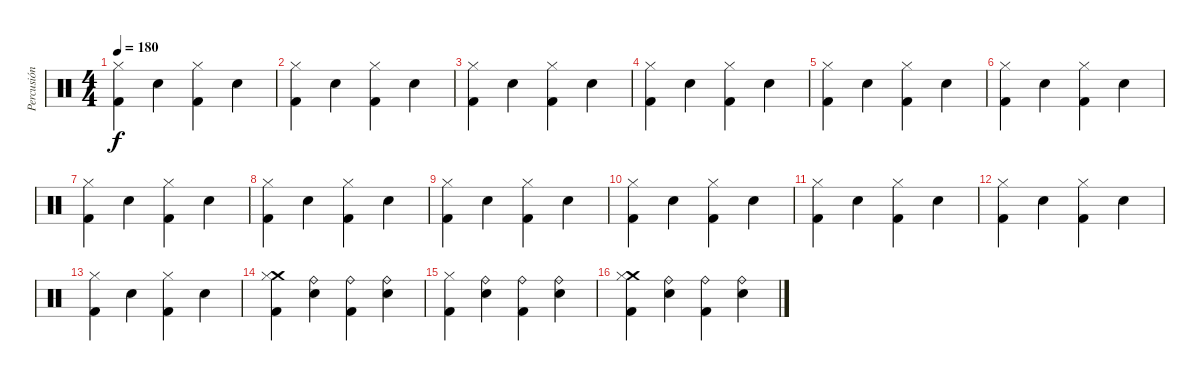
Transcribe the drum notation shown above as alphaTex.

\track ("Percusión" "Percusión") {instrument percussion}
\staff {score}
\articulation defaults
\ts (4 4)
\tempo 180
\clef neutral
\ks c
("Hi-Hat (closed)" "Kick (hit) 2").4{dy f} "Electric Snare (hit)".4 ("Hi-Hat (closed)" "Kick (hit) 2").4 "Electric Snare (hit)".4 |
("Hi-Hat (closed)" "Kick (hit) 2").4 "Electric Snare (hit)".4 ("Hi-Hat (closed)" "Kick (hit) 2").4 "Electric Snare (hit)".4 |
("Hi-Hat (closed)" "Kick (hit) 2").4 "Electric Snare (hit)".4 ("Hi-Hat (closed)" "Kick (hit) 2").4 "Electric Snare (hit)".4 |
("Hi-Hat (closed)" "Kick (hit) 2").4 "Electric Snare (hit)".4 ("Hi-Hat (closed)" "Kick (hit) 2").4 "Electric Snare (hit)".4 |
("Hi-Hat (closed)" "Kick (hit) 2").4 "Electric Snare (hit)".4 ("Hi-Hat (closed)" "Kick (hit) 2").4 "Electric Snare (hit)".4 |
("Hi-Hat (closed)" "Kick (hit) 2").4 "Electric Snare (hit)".4 ("Hi-Hat (closed)" "Kick (hit) 2").4 "Electric Snare (hit)".4 |
("Hi-Hat (closed)" "Kick (hit) 2").4 "Electric Snare (hit)".4 ("Hi-Hat (closed)" "Kick (hit) 2").4 "Electric Snare (hit)".4 |
("Hi-Hat (closed)" "Kick (hit) 2").4 "Electric Snare (hit)".4 ("Hi-Hat (closed)" "Kick (hit) 2").4 "Electric Snare (hit)".4 |
("Hi-Hat (closed)" "Kick (hit) 2").4 "Electric Snare (hit)".4 ("Hi-Hat (closed)" "Kick (hit) 2").4 "Electric Snare (hit)".4 |
("Hi-Hat (closed)" "Kick (hit) 2").4 "Electric Snare (hit)".4 ("Hi-Hat (closed)" "Kick (hit) 2").4 "Electric Snare (hit)".4 |
("Hi-Hat (closed)" "Kick (hit) 2").4 "Electric Snare (hit)".4 ("Hi-Hat (closed)" "Kick (hit) 2").4 "Electric Snare (hit)".4 |
("Hi-Hat (closed)" "Kick (hit) 2").4 "Electric Snare (hit)".4 ("Hi-Hat (closed)" "Kick (hit) 2").4 "Electric Snare (hit)".4 |
("Hi-Hat (closed)" "Kick (hit) 2").4 "Electric Snare (hit)".4 ("Hi-Hat (closed)" "Kick (hit) 2").4 "Electric Snare (hit)".4 |
("Crash medium (hit)" "Hi-Hat (closed)" "Kick (hit) 2").4 ("Ride (bell)" "Electric Snare (hit)").4 ("Ride (bell)" "Kick (hit) 2").4 ("Ride (bell)" "Electric Snare (hit)").4 |
("Hi-Hat (closed)" "Kick (hit) 2").4 ("Ride (bell)" "Electric Snare (hit)").4 ("Ride (bell)" "Kick (hit) 2").4 ("Ride (bell)" "Electric Snare (hit)").4 |
("Crash medium (hit)" "Hi-Hat (closed)" "Kick (hit) 2").4 ("Ride (bell)" "Electric Snare (hit)").4 ("Ride (bell)" "Kick (hit) 2").4 ("Ride (bell)" "Electric Snare (hit)").4
